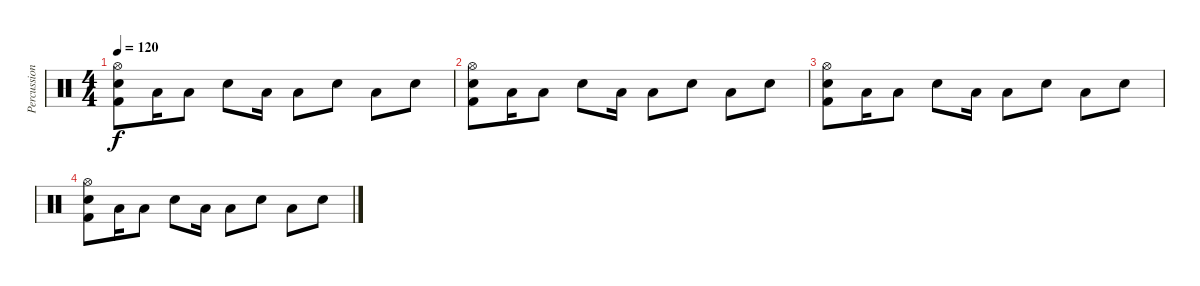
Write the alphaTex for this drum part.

\track ("Percussions" "Percussion") {instrument percussion}
\staff {score}
\articulation defaults
\ts (4 4)
\tempo 120
\clef neutral
\ks c
("Hi-Hat (open)" "Electric Snare (hit)" "Kick (hit) 2").8{dy f} "Low Tom (hit)".16 "Low Tom (hit)".8 "Snare (hit) 2".8 "Low Tom (hit)".16 "Low Tom (hit)".8 "Snare (hit) 2".8 "Low Tom (hit)".8 "Snare (hit) 2".8 |
("Hi-Hat (open)" "Electric Snare (hit)" "Kick (hit) 2").8 "Low Tom (hit)".16 "Low Tom (hit)".8 "Snare (hit) 2".8 "Low Tom (hit)".16 "Low Tom (hit)".8 "Snare (hit) 2".8 "Low Tom (hit)".8 "Snare (hit) 2".8 |
("Hi-Hat (open)" "Electric Snare (hit)" "Kick (hit) 2").8 "Low Tom (hit)".16 "Low Tom (hit)".8 "Snare (hit) 2".8 "Low Tom (hit)".16 "Low Tom (hit)".8 "Snare (hit) 2".8 "Low Tom (hit)".8 "Snare (hit) 2".8 |
("Hi-Hat (open)" "Electric Snare (hit)" "Kick (hit) 2").8 "Low Tom (hit)".16 "Low Tom (hit)".8 "Snare (hit) 2".8 "Low Tom (hit)".16 "Low Tom (hit)".8 "Snare (hit) 2".8 "Low Tom (hit)".8 "Snare (hit) 2".8
